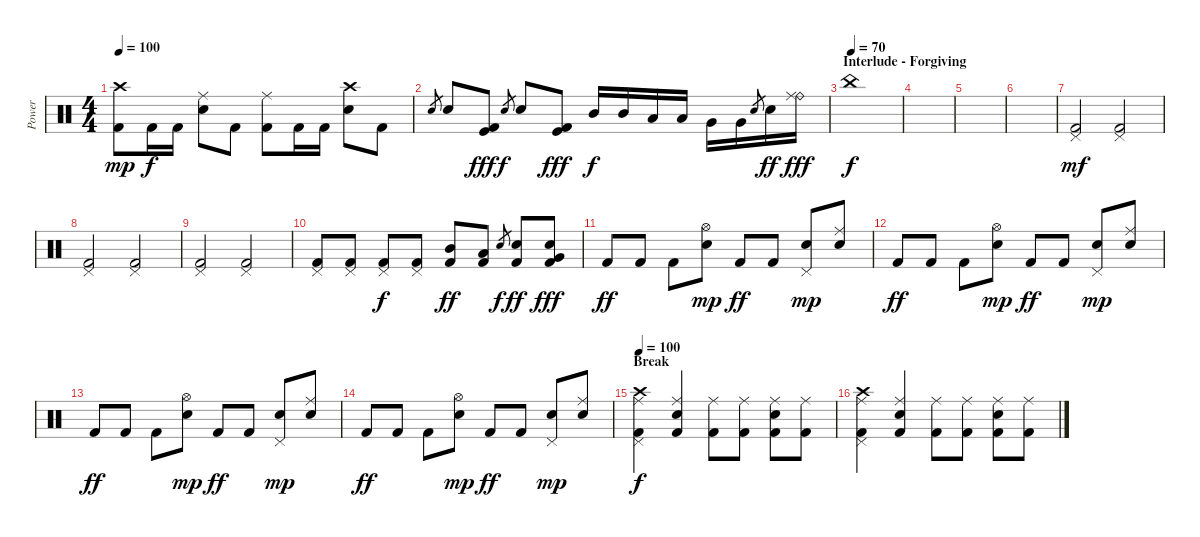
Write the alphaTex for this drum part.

\track ("Power" "Power") {instrument percussion}
\staff {score}
\articulation defaults
\ts (4 4)
\tempo 100
\clef neutral
\ks c
("Crash high (hit)" "Kick (hit) 2").8{dy mp} "Kick (hit) 2".16{dy f} "Kick (hit) 2".16 ("Ride (middle)" "Electric Snare (hit)").8 "Kick (hit) 2".8 ("Ride (middle)" "Kick (hit) 2").8 "Kick (hit) 2".16 "Kick (hit) 2".16 ("Crash high (hit)" "Electric Snare (hit)").8 "Kick (hit) 2".8 |
"Electric Snare (hit)".8{gr} "Electric Snare (hit)".8 ("Kick (hit)" "Kick (hit) 2").8{dy fff} "Electric Snare (hit)".8{gr dy f} "Electric Snare (hit)".8 ("Kick (hit)" "Kick (hit) 2").8{dy fff} "Mid Tom (hit)".16{dy f} "Mid Tom (hit)".16 "Low Tom (hit)".16 "Low Tom (hit)".16 "Very Low Tom (hit)".16 "Very Low Tom (hit)".16 "Electric Snare (hit)".8{gr} "Electric Snare (hit)".16{dy ff} ("Ride (bell)" "Ride (middle)").16{dy fff} |
\section ("" "Interlude - Forgiving")
\tempo (70)
"China (hit)".1{dy f} |
|
|
|
("Pedal Hi-Hat (hit)" "Kick (hit) 2").2{dy mf} ("Pedal Hi-Hat (hit)" "Kick (hit) 2").2 |
("Pedal Hi-Hat (hit)" "Kick (hit) 2").2 ("Pedal Hi-Hat (hit)" "Kick (hit) 2").2 |
("Pedal Hi-Hat (hit)" "Kick (hit) 2").2 ("Pedal Hi-Hat (hit)" "Kick (hit) 2").2 |
("Pedal Hi-Hat (hit)" "Kick (hit) 2").8 ("Pedal Hi-Hat (hit)" "Kick (hit) 2").8 ("Pedal Hi-Hat (hit)" "Kick (hit) 2").8{dy f} ("Pedal Hi-Hat (hit)" "Kick (hit) 2").8 ("Mid Tom (hit)" "Kick (hit) 2").8{dy ff} ("Low Tom (hit)" "Kick (hit) 2").8 "Electric Snare (hit)".8{gr dy f} ("Electric Snare (hit)" "Kick (hit) 2").8{dy ff} ("Electric Snare (hit)" "Very Low Tom (hit)" "Kick (hit) 2").8{dy fff} |
"Kick (hit) 2".8{dy ff} "Kick (hit) 2".8 "Kick (hit) 2".8 ("Hi-Hat (open)" "Electric Snare (hit)").8{dy mp} "Kick (hit) 2".8{dy ff} "Kick (hit) 2".8 ("Electric Snare (hit)" "Pedal Hi-Hat (hit)").8{dy mp} ("Electric Snare (hit)" "Ride (middle)").8 |
"Kick (hit) 2".8{dy ff} "Kick (hit) 2".8 "Kick (hit) 2".8 ("Hi-Hat (open)" "Electric Snare (hit)").8{dy mp} "Kick (hit) 2".8{dy ff} "Kick (hit) 2".8 ("Electric Snare (hit)" "Pedal Hi-Hat (hit)").8{dy mp} ("Electric Snare (hit)" "Ride (middle)").8 |
"Kick (hit) 2".8{dy ff} "Kick (hit) 2".8 "Kick (hit) 2".8 ("Hi-Hat (open)" "Electric Snare (hit)").8{dy mp} "Kick (hit) 2".8{dy ff} "Kick (hit) 2".8 ("Electric Snare (hit)" "Pedal Hi-Hat (hit)").8{dy mp} ("Electric Snare (hit)" "Ride (middle)").8 |
"Kick (hit) 2".8{dy ff} "Kick (hit) 2".8 "Kick (hit) 2".8 ("Hi-Hat (open)" "Electric Snare (hit)").8{dy mp} "Kick (hit) 2".8{dy ff} "Kick (hit) 2".8 ("Electric Snare (hit)" "Pedal Hi-Hat (hit)").8{dy mp} ("Electric Snare (hit)" "Ride (middle)").8 |
\section ("" "Break")
\tempo 100
("Crash high (hit)" "Pedal Hi-Hat (hit)" "Ride (middle)" "Kick (hit) 2").4{dy f} ("Electric Snare (hit)" "Ride (middle)" "Kick (hit) 2").4 ("Ride (middle)" "Kick (hit) 2").8 ("Ride (middle)" "Kick (hit) 2").8 ("Electric Snare (hit)" "Ride (middle)" "Kick (hit) 2").8 ("Ride (middle)" "Kick (hit) 2").8 |
("Crash high (hit)" "Pedal Hi-Hat (hit)" "Ride (middle)" "Kick (hit) 2").4 ("Electric Snare (hit)" "Ride (middle)" "Kick (hit) 2").4 ("Ride (middle)" "Kick (hit) 2").8 ("Ride (middle)" "Kick (hit) 2").8 ("Electric Snare (hit)" "Ride (middle)" "Kick (hit) 2").8 ("Ride (middle)" "Kick (hit) 2").8
